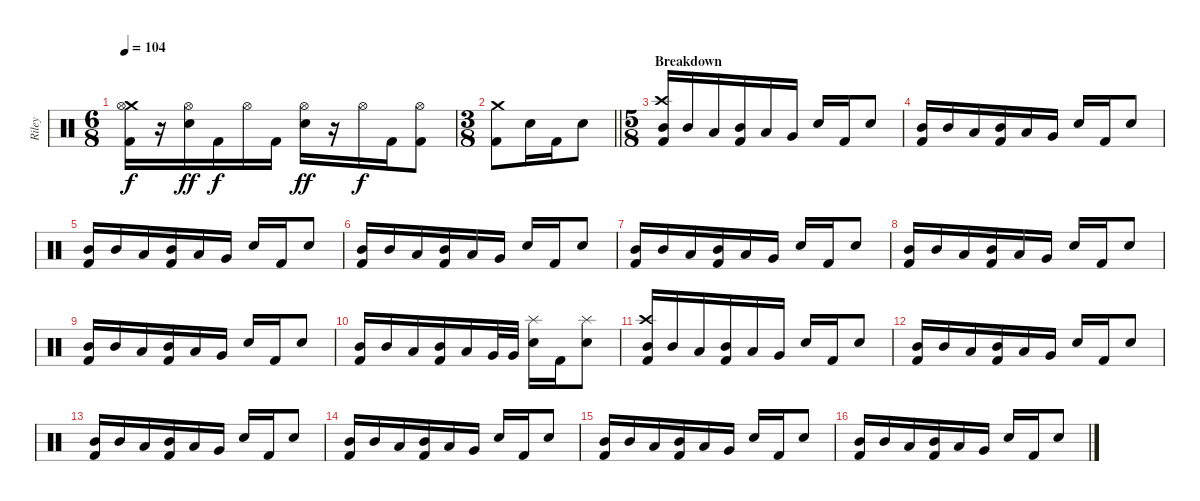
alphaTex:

\track ("Riley" "Riley") {instrument percussion}
\staff {score}
\articulation defaults
\ts (6 8)
\tempo 104
\clef neutral
\ks c
("Crash medium (hit)" "Hi-Hat (open)" "Kick (hit) 2").16{dy f} r.16 ("Hi-Hat (open)" "Electric Snare (hit)").16{dy ff} "Kick (hit) 2".16{dy f} "Hi-Hat (open)".16 "Kick (hit) 2".16 ("Hi-Hat (open)" "Electric Snare (hit)").16{dy ff} r.16 "Hi-Hat (open)".16{dy f} "Kick (hit) 2".16 ("Hi-Hat (open)" "Kick (hit) 2").8 |
\ts (3 8)
\barLineRight lightlight
("Crash medium (hit)" "Kick (hit) 2").8 "Electric Snare (hit)".16 "Kick (hit) 2".16 "Electric Snare (hit)".8 |
\ts (5 8)
\section ("" "Breakdown")
("Crash high (hit)" "Mid Tom (hit)" "Kick (hit) 2").16 "Mid Tom (hit)".16 "Low Tom (hit)".16 ("Mid Tom (hit)" "Kick (hit) 2").16 "Low Tom (hit)".16 "Very Low Tom (hit)".16 "Electric Snare (hit)".16 "Kick (hit) 2".16 "Electric Snare (hit)".8 |
("Mid Tom (hit)" "Kick (hit) 2").16 "Mid Tom (hit)".16 "Low Tom (hit)".16 ("Mid Tom (hit)" "Kick (hit) 2").16 "Low Tom (hit)".16 "Very Low Tom (hit)".16 "Electric Snare (hit)".16 "Kick (hit) 2".16 "Electric Snare (hit)".8 |
("Mid Tom (hit)" "Kick (hit) 2").16 "Mid Tom (hit)".16 "Low Tom (hit)".16 ("Mid Tom (hit)" "Kick (hit) 2").16 "Low Tom (hit)".16 "Very Low Tom (hit)".16 "Electric Snare (hit)".16 "Kick (hit) 2".16 "Electric Snare (hit)".8 |
("Mid Tom (hit)" "Kick (hit) 2").16 "Mid Tom (hit)".16 "Low Tom (hit)".16 ("Mid Tom (hit)" "Kick (hit) 2").16 "Low Tom (hit)".16 "Very Low Tom (hit)".16 "Electric Snare (hit)".16 "Kick (hit) 2".16 "Electric Snare (hit)".8 |
("Mid Tom (hit)" "Kick (hit) 2").16 "Mid Tom (hit)".16 "Low Tom (hit)".16 ("Mid Tom (hit)" "Kick (hit) 2").16 "Low Tom (hit)".16 "Very Low Tom (hit)".16 "Electric Snare (hit)".16 "Kick (hit) 2".16 "Electric Snare (hit)".8 |
("Mid Tom (hit)" "Kick (hit) 2").16 "Mid Tom (hit)".16 "Low Tom (hit)".16 ("Mid Tom (hit)" "Kick (hit) 2").16 "Low Tom (hit)".16 "Very Low Tom (hit)".16 "Electric Snare (hit)".16 "Kick (hit) 2".16 "Electric Snare (hit)".8 |
("Mid Tom (hit)" "Kick (hit) 2").16 "Mid Tom (hit)".16 "Low Tom (hit)".16 ("Mid Tom (hit)" "Kick (hit) 2").16 "Low Tom (hit)".16 "Very Low Tom (hit)".16 "Electric Snare (hit)".16 "Kick (hit) 2".16 "Electric Snare (hit)".8 |
("Mid Tom (hit)" "Kick (hit) 2").16 "Mid Tom (hit)".16 "Low Tom (hit)".16 ("Mid Tom (hit)" "Kick (hit) 2").16 "Low Tom (hit)".16 "Very Low Tom (hit)".32 "Very Low Tom (hit)".32 ("Splash (hit)" "Electric Snare (hit)").16 "Kick (hit) 2".16 ("Splash (hit)" "Electric Snare (hit)").8 |
("Crash high (hit)" "Mid Tom (hit)" "Kick (hit) 2").16 "Mid Tom (hit)".16 "Low Tom (hit)".16 ("Mid Tom (hit)" "Kick (hit) 2").16 "Low Tom (hit)".16 "Very Low Tom (hit)".16 "Electric Snare (hit)".16 "Kick (hit) 2".16 "Electric Snare (hit)".8 |
("Mid Tom (hit)" "Kick (hit) 2").16 "Mid Tom (hit)".16 "Low Tom (hit)".16 ("Mid Tom (hit)" "Kick (hit) 2").16 "Low Tom (hit)".16 "Very Low Tom (hit)".16 "Electric Snare (hit)".16 "Kick (hit) 2".16 "Electric Snare (hit)".8 |
("Mid Tom (hit)" "Kick (hit) 2").16 "Mid Tom (hit)".16 "Low Tom (hit)".16 ("Mid Tom (hit)" "Kick (hit) 2").16 "Low Tom (hit)".16 "Very Low Tom (hit)".16 "Electric Snare (hit)".16 "Kick (hit) 2".16 "Electric Snare (hit)".8 |
("Mid Tom (hit)" "Kick (hit) 2").16 "Mid Tom (hit)".16 "Low Tom (hit)".16 ("Mid Tom (hit)" "Kick (hit) 2").16 "Low Tom (hit)".16 "Very Low Tom (hit)".16 "Electric Snare (hit)".16 "Kick (hit) 2".16 "Electric Snare (hit)".8 |
("Mid Tom (hit)" "Kick (hit) 2").16 "Mid Tom (hit)".16 "Low Tom (hit)".16 ("Mid Tom (hit)" "Kick (hit) 2").16 "Low Tom (hit)".16 "Very Low Tom (hit)".16 "Electric Snare (hit)".16 "Kick (hit) 2".16 "Electric Snare (hit)".8 |
("Mid Tom (hit)" "Kick (hit) 2").16 "Mid Tom (hit)".16 "Low Tom (hit)".16 ("Mid Tom (hit)" "Kick (hit) 2").16 "Low Tom (hit)".16 "Very Low Tom (hit)".16 "Electric Snare (hit)".16 "Kick (hit) 2".16 "Electric Snare (hit)".8
